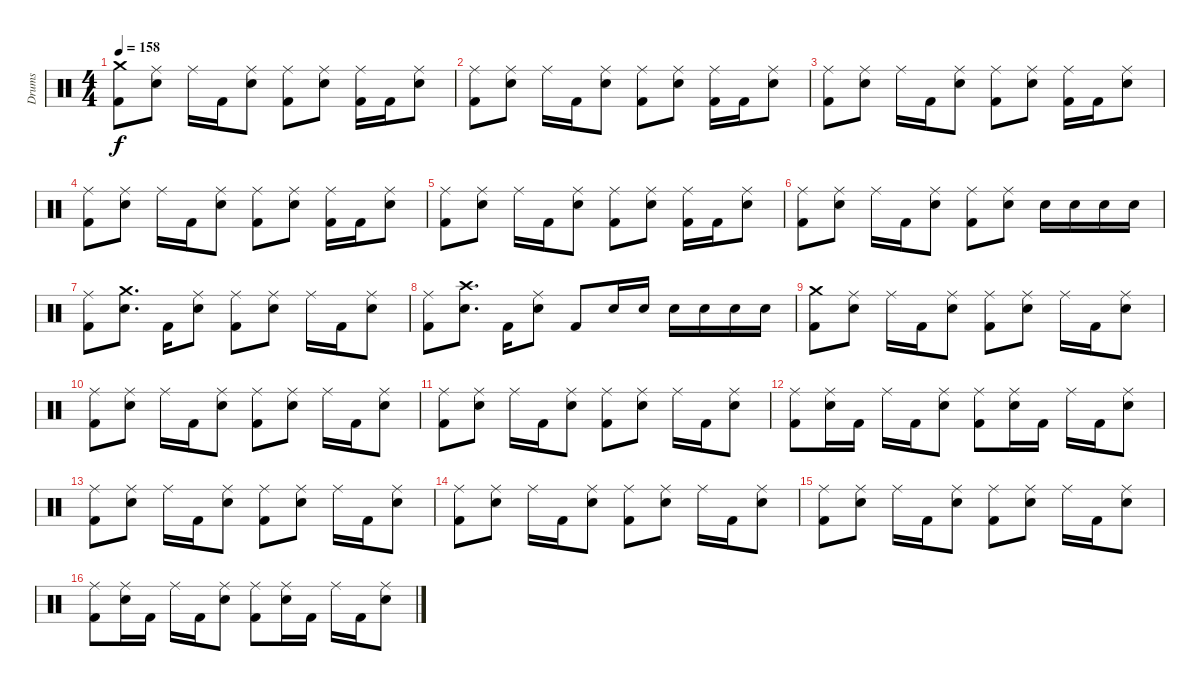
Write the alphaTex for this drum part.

\track ("Drums" "Drums") {instrument percussion}
\staff {score}
\articulation defaults
\ts (4 4)
\tempo 158
\clef neutral
\ks c
("Crash medium (hit)" "Kick (hit) 2").8{dy f} ("Ride (middle)" "Electric Snare (hit)").8 "Ride (middle)".16 "Kick (hit) 2".16 ("Ride (middle)" "Electric Snare (hit)").8 ("Ride (middle)" "Kick (hit) 2").8 ("Ride (middle)" "Electric Snare (hit)").8 ("Ride (middle)" "Kick (hit) 2").16 "Kick (hit) 2".16 ("Ride (middle)" "Electric Snare (hit)").8 |
("Ride (middle)" "Kick (hit) 2").8 ("Ride (middle)" "Electric Snare (hit)").8 "Ride (middle)".16 "Kick (hit) 2".16 ("Ride (middle)" "Electric Snare (hit)").8 ("Ride (middle)" "Kick (hit) 2").8 ("Ride (middle)" "Electric Snare (hit)").8 ("Ride (middle)" "Kick (hit) 2").16 "Kick (hit) 2".16 ("Ride (middle)" "Electric Snare (hit)").8 |
("Ride (middle)" "Kick (hit) 2").8 ("Ride (middle)" "Electric Snare (hit)").8 "Ride (middle)".16 "Kick (hit) 2".16 ("Ride (middle)" "Electric Snare (hit)").8 ("Ride (middle)" "Kick (hit) 2").8 ("Ride (middle)" "Electric Snare (hit)").8 ("Ride (middle)" "Kick (hit) 2").16 "Kick (hit) 2".16 ("Ride (middle)" "Electric Snare (hit)").8 |
("Ride (middle)" "Kick (hit) 2").8 ("Ride (middle)" "Electric Snare (hit)").8 "Ride (middle)".16 "Kick (hit) 2".16 ("Ride (middle)" "Electric Snare (hit)").8 ("Ride (middle)" "Kick (hit) 2").8 ("Ride (middle)" "Electric Snare (hit)").8 ("Ride (middle)" "Kick (hit) 2").16 "Kick (hit) 2".16 ("Ride (middle)" "Electric Snare (hit)").8 |
("Ride (middle)" "Kick (hit) 2").8 ("Ride (middle)" "Electric Snare (hit)").8 "Ride (middle)".16 "Kick (hit) 2".16 ("Ride (middle)" "Electric Snare (hit)").8 ("Ride (middle)" "Kick (hit) 2").8 ("Ride (middle)" "Electric Snare (hit)").8 ("Ride (middle)" "Kick (hit) 2").16 "Kick (hit) 2".16 ("Ride (middle)" "Electric Snare (hit)").8 |
("Ride (middle)" "Kick (hit) 2").8 ("Ride (middle)" "Electric Snare (hit)").8 "Ride (middle)".16 "Kick (hit) 2".16 ("Ride (middle)" "Electric Snare (hit)").8 ("Ride (middle)" "Kick (hit) 2").8 ("Ride (middle)" "Electric Snare (hit)").8 "Electric Snare (hit)".16 "Electric Snare (hit)".16 "Electric Snare (hit)".16 "Electric Snare (hit)".16 |
("Ride (middle)" "Kick (hit) 2").8 ("Crash medium (hit)" "Electric Snare (hit)").8{d} "Kick (hit) 2".16 ("Ride (middle)" "Electric Snare (hit)").8 ("Ride (middle)" "Kick (hit) 2").8 ("Ride (middle)" "Electric Snare (hit)").8 "Ride (middle)".16 "Kick (hit) 2".16 ("Ride (middle)" "Electric Snare (hit)").8 |
("Ride (middle)" "Kick (hit) 2").8 ("Crash high (hit)" "Electric Snare (hit)").8{d} "Kick (hit) 2".16 ("Ride (middle)" "Electric Snare (hit)").8 "Kick (hit) 2".8 "Electric Snare (hit)".16 "Electric Snare (hit)".16 "Electric Snare (hit)".16 "Electric Snare (hit)".16 "Electric Snare (hit)".16 "Electric Snare (hit)".16 |
("Crash medium (hit)" "Kick (hit) 2").8 ("Ride (middle)" "Electric Snare (hit)").8 "Ride (middle)".16 "Kick (hit) 2".16 ("Ride (middle)" "Electric Snare (hit)").8 ("Ride (middle)" "Kick (hit) 2").8 ("Ride (middle)" "Electric Snare (hit)").8 "Ride (middle)".16 "Kick (hit) 2".16 ("Ride (middle)" "Electric Snare (hit)").8 |
("Ride (middle)" "Kick (hit) 2").8 ("Ride (middle)" "Electric Snare (hit)").8 "Ride (middle)".16 "Kick (hit) 2".16 ("Ride (middle)" "Electric Snare (hit)").8 ("Ride (middle)" "Kick (hit) 2").8 ("Ride (middle)" "Electric Snare (hit)").8 "Ride (middle)".16 "Kick (hit) 2".16 ("Ride (middle)" "Electric Snare (hit)").8 |
("Ride (middle)" "Kick (hit) 2").8 ("Ride (middle)" "Electric Snare (hit)").8 "Ride (middle)".16 "Kick (hit) 2".16 ("Ride (middle)" "Electric Snare (hit)").8 ("Ride (middle)" "Kick (hit) 2").8 ("Ride (middle)" "Electric Snare (hit)").8 "Ride (middle)".16 "Kick (hit) 2".16 ("Ride (middle)" "Electric Snare (hit)").8 |
("Ride (middle)" "Kick (hit) 2").8 ("Ride (middle)" "Electric Snare (hit)").16 "Kick (hit) 2".16 "Ride (middle)".16 "Kick (hit) 2".16 ("Ride (middle)" "Electric Snare (hit)").8 ("Ride (middle)" "Kick (hit) 2").8 ("Ride (middle)" "Electric Snare (hit)").16 "Kick (hit) 2".16 "Ride (middle)".16 "Kick (hit) 2".16 ("Ride (middle)" "Electric Snare (hit)").8 |
("Ride (middle)" "Kick (hit) 2").8 ("Ride (middle)" "Electric Snare (hit)").8 "Ride (middle)".16 "Kick (hit) 2".16 ("Ride (middle)" "Electric Snare (hit)").8 ("Ride (middle)" "Kick (hit) 2").8 ("Ride (middle)" "Electric Snare (hit)").8 "Ride (middle)".16 "Kick (hit) 2".16 ("Ride (middle)" "Electric Snare (hit)").8 |
("Ride (middle)" "Kick (hit) 2").8 ("Ride (middle)" "Electric Snare (hit)").8 "Ride (middle)".16 "Kick (hit) 2".16 ("Ride (middle)" "Electric Snare (hit)").8 ("Ride (middle)" "Kick (hit) 2").8 ("Ride (middle)" "Electric Snare (hit)").8 "Ride (middle)".16 "Kick (hit) 2".16 ("Ride (middle)" "Electric Snare (hit)").8 |
("Ride (middle)" "Kick (hit) 2").8 ("Ride (middle)" "Electric Snare (hit)").8 "Ride (middle)".16 "Kick (hit) 2".16 ("Ride (middle)" "Electric Snare (hit)").8 ("Ride (middle)" "Kick (hit) 2").8 ("Ride (middle)" "Electric Snare (hit)").8 "Ride (middle)".16 "Kick (hit) 2".16 ("Ride (middle)" "Electric Snare (hit)").8 |
("Ride (middle)" "Kick (hit) 2").8 ("Ride (middle)" "Electric Snare (hit)").16 "Kick (hit) 2".16 "Ride (middle)".16 "Kick (hit) 2".16 ("Ride (middle)" "Electric Snare (hit)").8 ("Ride (middle)" "Kick (hit) 2").8 ("Ride (middle)" "Electric Snare (hit)").16 "Kick (hit) 2".16 "Ride (middle)".16 "Kick (hit) 2".16 ("Ride (middle)" "Electric Snare (hit)").8
